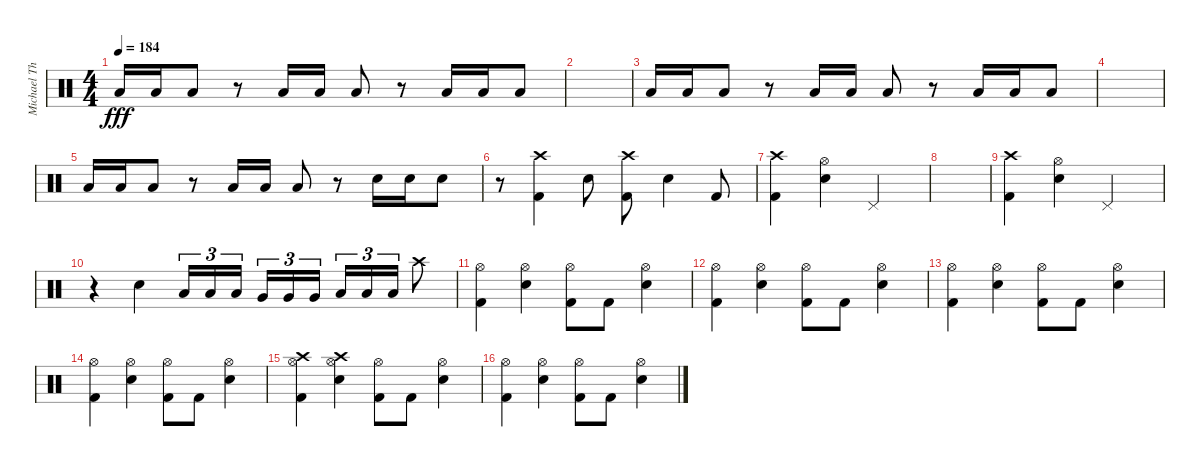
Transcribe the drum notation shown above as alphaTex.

\track ("Michael Thomas" "Michael Th") {instrument percussion}
\staff {score}
\articulation defaults
\ts (4 4)
\tempo 184
\clef neutral
\ks c "Low Floor Tom (hit)".16{dy fff} "Low Floor Tom (hit)".16 "Low Floor Tom (hit)".8
r.8 "Low Floor Tom (hit)".16 "Low Floor Tom (hit)".16 "Low Floor Tom (hit)".8 r.8 "Low Floor Tom (hit)".16 "Low Floor Tom (hit)".16 "Low Floor Tom (hit)".8 |
|
"Low Floor Tom (hit)".16 "Low Floor Tom (hit)".16 "Low Floor Tom (hit)".8 r.8 "Low Floor Tom (hit)".16 "Low Floor Tom (hit)".16 "Low Floor Tom (hit)".8 r.8 "Low Floor Tom (hit)".16 "Low Floor Tom (hit)".16 "Low Floor Tom (hit)".8 |
|
"Low Floor Tom (hit)".16 "Low Floor Tom (hit)".16 "Low Floor Tom (hit)".8 r.8 "Low Floor Tom (hit)".16 "Low Floor Tom (hit)".16 "Low Floor Tom (hit)".8 r.8 "Snare (hit) 2".16 "Snare (hit) 2".16 "Snare (hit) 2".8 |
r.8 ("Crash high (hit)" "Kick (hit) 2").4 "Snare (hit) 2".8 ("Crash high (hit)" "Kick (hit) 2").8 "Snare (hit) 2".4 "Kick (hit) 2".8 |
("Crash high (hit)" "Kick (hit) 2").4 ("Hi-Hat (open)" "Snare (hit) 2").4 "Pedal Hi-Hat (hit)".2 |
|
("Crash high (hit)" "Kick (hit) 2").4 ("Hi-Hat (open)" "Snare (hit) 2").4 "Pedal Hi-Hat (hit)".2 |
r.4 "Snare (hit) 2".4 "Low Tom (hit)".16{tu (3 2)} "Low Tom (hit)".16{tu (3 2)} "Low Tom (hit)".16{tu (3 2) beam splitsecondary} "Very Low Tom (hit)".16{tu (3 2)} "Very Low Tom (hit)".16{tu (3 2)} "Very Low Tom (hit)".16{tu (3 2)} "Low Floor Tom (hit)".16{tu (3 2)} "Low Floor Tom (hit)".16{tu (3 2)} "Low Floor Tom (hit)".16{tu (3 2)} "Crash high (hit)".8 |
("Hi-Hat (open)" "Kick (hit) 2").4 ("Hi-Hat (open)" "Snare (hit) 2").4 ("Hi-Hat (open)" "Kick (hit) 2").8 "Kick (hit) 2".8 ("Hi-Hat (open)" "Snare (hit) 2").4 |
("Hi-Hat (open)" "Kick (hit) 2").4 ("Hi-Hat (open)" "Snare (hit) 2").4 ("Hi-Hat (open)" "Kick (hit) 2").8 "Kick (hit) 2".8 ("Hi-Hat (open)" "Snare (hit) 2").4 |
("Hi-Hat (open)" "Kick (hit) 2").4 ("Hi-Hat (open)" "Snare (hit) 2").4 ("Hi-Hat (open)" "Kick (hit) 2").8 "Kick (hit) 2".8 ("Hi-Hat (open)" "Snare (hit) 2").4 |
("Hi-Hat (open)" "Kick (hit) 2").4 ("Hi-Hat (open)" "Snare (hit) 2").4 ("Hi-Hat (open)" "Kick (hit) 2").8 "Kick (hit) 2".8 ("Hi-Hat (open)" "Snare (hit) 2").4 |
("Crash high (hit)" "Hi-Hat (open)" "Kick (hit) 2").4 ("Crash high (hit)" "Hi-Hat (open)" "Snare (hit) 2").4 ("Hi-Hat (open)" "Kick (hit) 2").8 "Kick (hit) 2".8 ("Hi-Hat (open)" "Snare (hit) 2").4 |
("Hi-Hat (open)" "Kick (hit) 2").4 ("Hi-Hat (open)" "Snare (hit) 2").4 ("Hi-Hat (open)" "Kick (hit) 2").8 "Kick (hit) 2".8 ("Hi-Hat (open)" "Snare (hit) 2").4
